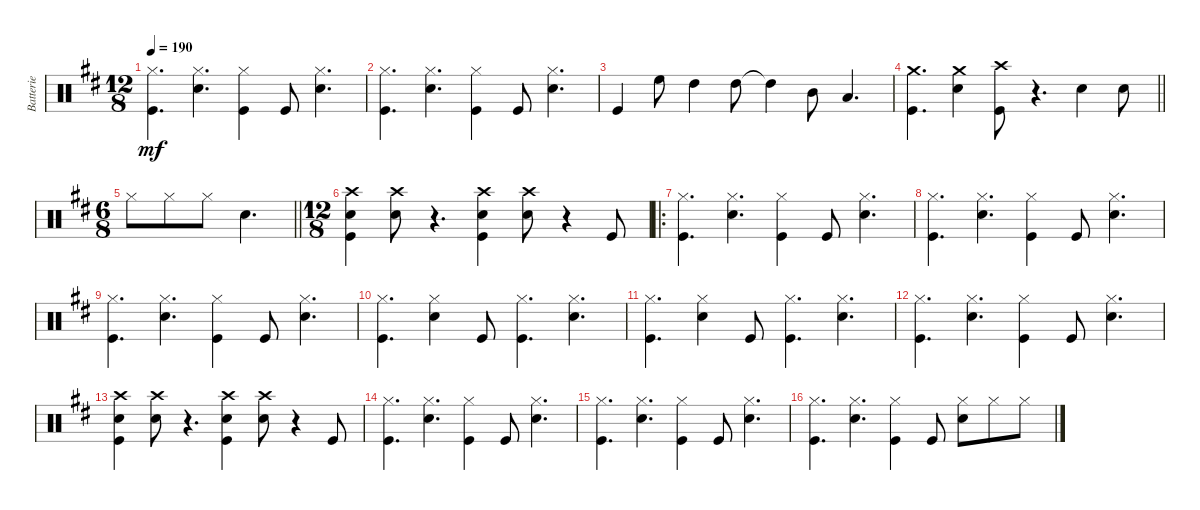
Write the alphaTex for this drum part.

\track ("Batterie" "Batterie") {instrument percussion}
\staff {score}
\articulation defaults
\ts (12 8)
\tempo 190
\clef neutral
\ks d
("Hi-Hat (closed)" "Kick (hit)").4{d dy mf} ("Hi-Hat (closed)" "Snare (hit) 2").4{d} ("Hi-Hat (closed)" "Kick (hit)").4 "Kick (hit)".8 ("Hi-Hat (closed)" "Snare (hit) 2").4{d} |
("Hi-Hat (closed)" "Kick (hit)").4{d} ("Hi-Hat (closed)" "Snare (hit) 2").4{d} ("Hi-Hat (closed)" "Kick (hit)").4 "Kick (hit)".8 ("Hi-Hat (closed)" "Snare (hit) 2").4{d} |
"Kick (hit)".4 "High Floor Tom (hit)".8 "High Tom (hit)".4 "High Tom (hit)".8 "High Tom (hit)"{t}.4 "Mid Tom (hit)".8 "Low Tom (hit)".4{d} |
\barLineRight lightlight
("Crash medium (hit)" "Kick (hit)").4{d} ("Crash medium (hit)" "Snare (hit) 2").4 ("Crash high (hit)" "Kick (hit)").8 r.4{d} "Snare (hit) 2".4 "Snare (hit) 2".8 |
\ts (6 8)
\barLineRight lightlight "Hi-Hat (closed)".8 "Hi-Hat (closed)".8 "Hi-Hat (closed)".8 "Snare (hit) 2".4{d}
|
\ts (12 8)
("Crash high (hit)" "Snare (hit) 2" "Kick (hit)").4 ("Crash high (hit)" "Snare (hit) 2").8 r.4{d} ("Crash high (hit)" "Snare (hit) 2" "Kick (hit)").4 ("Crash high (hit)" "Snare (hit) 2").8 r.4 "Kick (hit)".8 |
\ro
("Hi-Hat (closed)" "Kick (hit)").4{d} ("Hi-Hat (closed)" "Snare (hit) 2").4{d} ("Hi-Hat (closed)" "Kick (hit)").4 "Kick (hit)".8 ("Hi-Hat (closed)" "Snare (hit) 2").4{d} |
("Hi-Hat (closed)" "Kick (hit)").4{d} ("Hi-Hat (closed)" "Snare (hit) 2").4{d} ("Hi-Hat (closed)" "Kick (hit)").4 "Kick (hit)".8 ("Hi-Hat (closed)" "Snare (hit) 2").4{d} |
("Hi-Hat (closed)" "Kick (hit)").4{d} ("Hi-Hat (closed)" "Snare (hit) 2").4{d} ("Hi-Hat (closed)" "Kick (hit)").4 "Kick (hit)".8 ("Hi-Hat (closed)" "Snare (hit) 2").4{d} |
("Hi-Hat (closed)" "Kick (hit)").4{d} ("Hi-Hat (closed)" "Snare (hit) 2").4 "Kick (hit)".8 ("Hi-Hat (closed)" "Kick (hit)").4{d} ("Hi-Hat (closed)" "Snare (hit) 2").4{d} |
("Hi-Hat (closed)" "Kick (hit)").4{d} ("Hi-Hat (closed)" "Snare (hit) 2").4 "Kick (hit)".8 ("Hi-Hat (closed)" "Kick (hit)").4{d} ("Hi-Hat (closed)" "Snare (hit) 2").4{d} |
("Hi-Hat (closed)" "Kick (hit)").4{d} ("Hi-Hat (closed)" "Snare (hit) 2").4{d} ("Hi-Hat (closed)" "Kick (hit)").4 "Kick (hit)".8 ("Hi-Hat (closed)" "Snare (hit) 2").4{d} |
("Crash high (hit)" "Snare (hit) 2" "Kick (hit)").4 ("Crash high (hit)" "Snare (hit) 2").8 r.4{d} ("Crash high (hit)" "Snare (hit) 2" "Kick (hit)").4 ("Crash high (hit)" "Snare (hit) 2").8 r.4 "Kick (hit)".8 |
("Hi-Hat (closed)" "Kick (hit)").4{d} ("Hi-Hat (closed)" "Snare (hit) 2").4{d} ("Hi-Hat (closed)" "Kick (hit)").4 "Kick (hit)".8 ("Hi-Hat (closed)" "Snare (hit) 2").4{d} |
("Hi-Hat (closed)" "Kick (hit)").4{d} ("Hi-Hat (closed)" "Snare (hit) 2").4{d} ("Hi-Hat (closed)" "Kick (hit)").4 "Kick (hit)".8 ("Hi-Hat (closed)" "Snare (hit) 2").4{d} |
("Hi-Hat (closed)" "Kick (hit)").4{d} ("Hi-Hat (closed)" "Snare (hit) 2").4{d} ("Hi-Hat (closed)" "Kick (hit)").4 "Kick (hit)".8 ("Hi-Hat (closed)" "Snare (hit) 2").8 "Hi-Hat (closed)".8 "Hi-Hat (closed)".8
